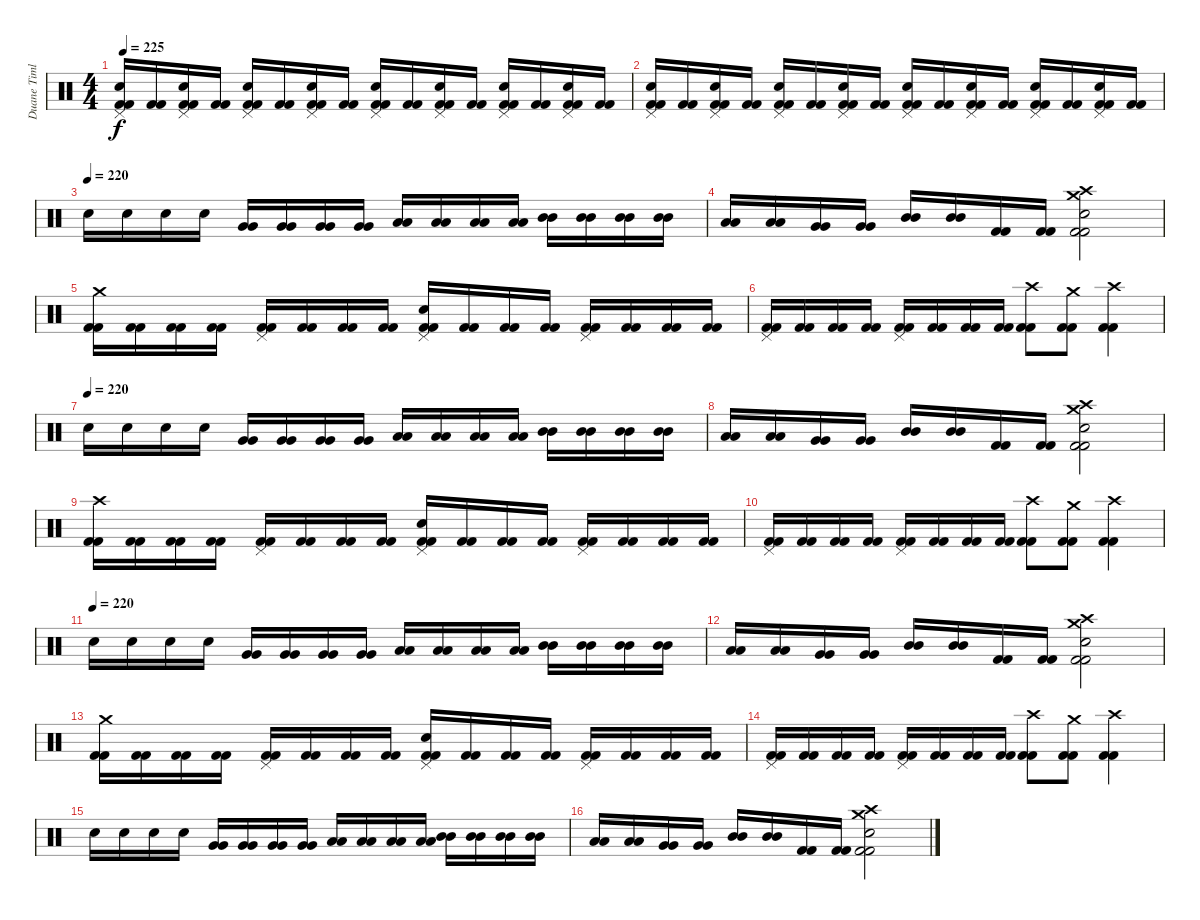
\track ("Duane Timlin" "Duane Timl") {instrument percussion}
\staff {score}
\articulation defaults
\ts (4 4)
\tempo 225
\clef neutral
\ks c
("Pedal Hi-Hat (hit)" "Electric Snare (hit)" "Kick (hit) 2" "Kick (hit) 2").16{dy f} ("Kick (hit) 2" "Kick (hit) 2").16 ("Pedal Hi-Hat (hit)" "Electric Snare (hit)" "Kick (hit) 2" "Kick (hit) 2").16 ("Kick (hit) 2" "Kick (hit) 2").16 ("Pedal Hi-Hat (hit)" "Electric Snare (hit)" "Kick (hit) 2" "Kick (hit) 2").16 ("Kick (hit) 2" "Kick (hit) 2").16 ("Pedal Hi-Hat (hit)" "Electric Snare (hit)" "Kick (hit) 2" "Kick (hit) 2").16 ("Kick (hit) 2" "Kick (hit) 2").16 ("Pedal Hi-Hat (hit)" "Electric Snare (hit)" "Kick (hit) 2" "Kick (hit) 2").16 ("Kick (hit) 2" "Kick (hit) 2").16 ("Pedal Hi-Hat (hit)" "Electric Snare (hit)" "Kick (hit) 2" "Kick (hit) 2").16 ("Kick (hit) 2" "Kick (hit) 2").16 ("Pedal Hi-Hat (hit)" "Electric Snare (hit)" "Kick (hit) 2" "Kick (hit) 2").16 ("Kick (hit) 2" "Kick (hit) 2").16 ("Pedal Hi-Hat (hit)" "Electric Snare (hit)" "Kick (hit) 2" "Kick (hit) 2").16 ("Kick (hit) 2" "Kick (hit) 2").16 |
("Pedal Hi-Hat (hit)" "Electric Snare (hit)" "Kick (hit) 2" "Kick (hit) 2").16 ("Kick (hit) 2" "Kick (hit) 2").16 ("Pedal Hi-Hat (hit)" "Electric Snare (hit)" "Kick (hit) 2" "Kick (hit) 2").16 ("Kick (hit) 2" "Kick (hit) 2").16 ("Pedal Hi-Hat (hit)" "Electric Snare (hit)" "Kick (hit) 2" "Kick (hit) 2").16 ("Kick (hit) 2" "Kick (hit) 2").16 ("Pedal Hi-Hat (hit)" "Electric Snare (hit)" "Kick (hit) 2" "Kick (hit) 2").16 ("Kick (hit) 2" "Kick (hit) 2").16 ("Pedal Hi-Hat (hit)" "Electric Snare (hit)" "Kick (hit) 2" "Kick (hit) 2").16 ("Kick (hit) 2" "Kick (hit) 2").16 ("Pedal Hi-Hat (hit)" "Electric Snare (hit)" "Kick (hit) 2" "Kick (hit) 2").16 ("Kick (hit) 2" "Kick (hit) 2").16 ("Pedal Hi-Hat (hit)" "Electric Snare (hit)" "Kick (hit) 2" "Kick (hit) 2").16 ("Kick (hit) 2" "Kick (hit) 2").16 ("Pedal Hi-Hat (hit)" "Electric Snare (hit)" "Kick (hit) 2" "Kick (hit) 2").16 ("Kick (hit) 2" "Kick (hit) 2").16 |
\tempo (220)
"Electric Snare (hit)".16 "Electric Snare (hit)".16 "Electric Snare (hit)".16 "Electric Snare (hit)".16 ("Very Low Tom (hit)" "Very Low Tom (hit)").16 ("Very Low Tom (hit)" "Very Low Tom (hit)").16 ("Very Low Tom (hit)" "Very Low Tom (hit)").16 ("Very Low Tom (hit)" "Very Low Tom (hit)").16 ("Low Tom (hit)" "Low Tom (hit)").16 ("Low Tom (hit)" "Low Tom (hit)").16 ("Low Tom (hit)" "Low Tom (hit)").16 ("Low Tom (hit)" "Low Tom (hit)").16 ("Mid Tom (hit)" "Mid Tom (hit)").16 ("Mid Tom (hit)" "Mid Tom (hit)").16 ("Mid Tom (hit)" "Mid Tom (hit)").16 ("Mid Tom (hit)" "Mid Tom (hit)").16 |
("Low Tom (hit)" "Low Tom (hit)").16 ("Low Tom (hit)" "Low Tom (hit)").16 ("Very Low Tom (hit)" "Very Low Tom (hit)").16 ("Very Low Tom (hit)" "Very Low Tom (hit)").16 ("Mid Tom (hit)" "Mid Tom (hit)").16 ("Mid Tom (hit)" "Mid Tom (hit)").16 ("Kick (hit) 2" "Kick (hit) 2").16 ("Kick (hit) 2" "Kick (hit) 2").16 ("Crash medium (hit)" "Crash high (hit)" "Electric Snare (hit)" "Kick (hit) 2" "Kick (hit) 2").2 |
("Crash medium (hit)" "Kick (hit) 2" "Kick (hit) 2").16 ("Kick (hit) 2" "Kick (hit) 2").16 ("Kick (hit) 2" "Kick (hit) 2").16 ("Kick (hit) 2" "Kick (hit) 2").16 ("Pedal Hi-Hat (hit)" "Kick (hit) 2" "Kick (hit) 2").16 ("Kick (hit) 2" "Kick (hit) 2").16 ("Kick (hit) 2" "Kick (hit) 2").16 ("Kick (hit) 2" "Kick (hit) 2").16 ("Pedal Hi-Hat (hit)" "Electric Snare (hit)" "Kick (hit) 2" "Kick (hit) 2").16 ("Kick (hit) 2" "Kick (hit) 2").16 ("Kick (hit) 2" "Kick (hit) 2").16 ("Kick (hit) 2" "Kick (hit) 2").16 ("Pedal Hi-Hat (hit)" "Kick (hit) 2" "Kick (hit) 2").16 ("Kick (hit) 2" "Kick (hit) 2").16 ("Kick (hit) 2" "Kick (hit) 2").16 ("Kick (hit) 2" "Kick (hit) 2").16 |
("Pedal Hi-Hat (hit)" "Kick (hit) 2" "Kick (hit) 2").16 ("Kick (hit) 2" "Kick (hit) 2").16 ("Kick (hit) 2" "Kick (hit) 2").16 ("Kick (hit) 2" "Kick (hit) 2").16 ("Pedal Hi-Hat (hit)" "Kick (hit) 2" "Kick (hit) 2").16 ("Kick (hit) 2" "Kick (hit) 2").16 ("Kick (hit) 2" "Kick (hit) 2").16 ("Kick (hit) 2" "Kick (hit) 2").16 ("Crash high (hit)" "Kick (hit) 2" "Kick (hit) 2").8 ("Crash medium (hit)" "Kick (hit) 2" "Kick (hit) 2").8 ("Crash high (hit)" "Kick (hit) 2" "Kick (hit) 2").4 |
\tempo (220)
"Electric Snare (hit)".16 "Electric Snare (hit)".16 "Electric Snare (hit)".16 "Electric Snare (hit)".16 ("Very Low Tom (hit)" "Very Low Tom (hit)").16 ("Very Low Tom (hit)" "Very Low Tom (hit)").16 ("Very Low Tom (hit)" "Very Low Tom (hit)").16 ("Very Low Tom (hit)" "Very Low Tom (hit)").16 ("Low Tom (hit)" "Low Tom (hit)").16 ("Low Tom (hit)" "Low Tom (hit)").16 ("Low Tom (hit)" "Low Tom (hit)").16 ("Low Tom (hit)" "Low Tom (hit)").16 ("Mid Tom (hit)" "Mid Tom (hit)").16 ("Mid Tom (hit)" "Mid Tom (hit)").16 ("Mid Tom (hit)" "Mid Tom (hit)").16 ("Mid Tom (hit)" "Mid Tom (hit)").16 |
("Low Tom (hit)" "Low Tom (hit)").16 ("Low Tom (hit)" "Low Tom (hit)").16 ("Very Low Tom (hit)" "Very Low Tom (hit)").16 ("Very Low Tom (hit)" "Very Low Tom (hit)").16 ("Mid Tom (hit)" "Mid Tom (hit)").16 ("Mid Tom (hit)" "Mid Tom (hit)").16 ("Kick (hit) 2" "Kick (hit) 2").16 ("Kick (hit) 2" "Kick (hit) 2").16 ("Crash medium (hit)" "Crash high (hit)" "Electric Snare (hit)" "Kick (hit) 2" "Kick (hit) 2").2 |
("Crash high (hit)" "Kick (hit) 2" "Kick (hit) 2").16 ("Kick (hit) 2" "Kick (hit) 2").16 ("Kick (hit) 2" "Kick (hit) 2").16 ("Kick (hit) 2" "Kick (hit) 2").16 ("Pedal Hi-Hat (hit)" "Kick (hit) 2" "Kick (hit) 2").16 ("Kick (hit) 2" "Kick (hit) 2").16 ("Kick (hit) 2" "Kick (hit) 2").16 ("Kick (hit) 2" "Kick (hit) 2").16 ("Pedal Hi-Hat (hit)" "Electric Snare (hit)" "Kick (hit) 2" "Kick (hit) 2").16 ("Kick (hit) 2" "Kick (hit) 2").16 ("Kick (hit) 2" "Kick (hit) 2").16 ("Kick (hit) 2" "Kick (hit) 2").16 ("Pedal Hi-Hat (hit)" "Kick (hit) 2" "Kick (hit) 2").16 ("Kick (hit) 2" "Kick (hit) 2").16 ("Kick (hit) 2" "Kick (hit) 2").16 ("Kick (hit) 2" "Kick (hit) 2").16 |
("Pedal Hi-Hat (hit)" "Kick (hit) 2" "Kick (hit) 2").16 ("Kick (hit) 2" "Kick (hit) 2").16 ("Kick (hit) 2" "Kick (hit) 2").16 ("Kick (hit) 2" "Kick (hit) 2").16 ("Pedal Hi-Hat (hit)" "Kick (hit) 2" "Kick (hit) 2").16 ("Kick (hit) 2" "Kick (hit) 2").16 ("Kick (hit) 2" "Kick (hit) 2").16 ("Kick (hit) 2" "Kick (hit) 2").16 ("Crash high (hit)" "Kick (hit) 2" "Kick (hit) 2").8 ("Crash medium (hit)" "Kick (hit) 2" "Kick (hit) 2").8 ("Crash high (hit)" "Kick (hit) 2" "Kick (hit) 2").4 |
\tempo (220)
"Electric Snare (hit)".16 "Electric Snare (hit)".16 "Electric Snare (hit)".16 "Electric Snare (hit)".16 ("Very Low Tom (hit)" "Very Low Tom (hit)").16 ("Very Low Tom (hit)" "Very Low Tom (hit)").16 ("Very Low Tom (hit)" "Very Low Tom (hit)").16 ("Very Low Tom (hit)" "Very Low Tom (hit)").16 ("Low Tom (hit)" "Low Tom (hit)").16 ("Low Tom (hit)" "Low Tom (hit)").16 ("Low Tom (hit)" "Low Tom (hit)").16 ("Low Tom (hit)" "Low Tom (hit)").16 ("Mid Tom (hit)" "Mid Tom (hit)").16 ("Mid Tom (hit)" "Mid Tom (hit)").16 ("Mid Tom (hit)" "Mid Tom (hit)").16 ("Mid Tom (hit)" "Mid Tom (hit)").16 |
("Low Tom (hit)" "Low Tom (hit)").16 ("Low Tom (hit)" "Low Tom (hit)").16 ("Very Low Tom (hit)" "Very Low Tom (hit)").16 ("Very Low Tom (hit)" "Very Low Tom (hit)").16 ("Mid Tom (hit)" "Mid Tom (hit)").16 ("Mid Tom (hit)" "Mid Tom (hit)").16 ("Kick (hit) 2" "Kick (hit) 2").16 ("Kick (hit) 2" "Kick (hit) 2").16 ("Crash medium (hit)" "Crash high (hit)" "Electric Snare (hit)" "Kick (hit) 2" "Kick (hit) 2").2 |
("Crash medium (hit)" "Kick (hit) 2" "Kick (hit) 2").16 ("Kick (hit) 2" "Kick (hit) 2").16 ("Kick (hit) 2" "Kick (hit) 2").16 ("Kick (hit) 2" "Kick (hit) 2").16 ("Pedal Hi-Hat (hit)" "Kick (hit) 2" "Kick (hit) 2").16 ("Kick (hit) 2" "Kick (hit) 2").16 ("Kick (hit) 2" "Kick (hit) 2").16 ("Kick (hit) 2" "Kick (hit) 2").16 ("Pedal Hi-Hat (hit)" "Electric Snare (hit)" "Kick (hit) 2" "Kick (hit) 2").16 ("Kick (hit) 2" "Kick (hit) 2").16 ("Kick (hit) 2" "Kick (hit) 2").16 ("Kick (hit) 2" "Kick (hit) 2").16 ("Pedal Hi-Hat (hit)" "Kick (hit) 2" "Kick (hit) 2").16 ("Kick (hit) 2" "Kick (hit) 2").16 ("Kick (hit) 2" "Kick (hit) 2").16 ("Kick (hit) 2" "Kick (hit) 2").16 |
("Pedal Hi-Hat (hit)" "Kick (hit) 2" "Kick (hit) 2").16 ("Kick (hit) 2" "Kick (hit) 2").16 ("Kick (hit) 2" "Kick (hit) 2").16 ("Kick (hit) 2" "Kick (hit) 2").16 ("Pedal Hi-Hat (hit)" "Kick (hit) 2" "Kick (hit) 2").16 ("Kick (hit) 2" "Kick (hit) 2").16 ("Kick (hit) 2" "Kick (hit) 2").16 ("Kick (hit) 2" "Kick (hit) 2").16 ("Crash high (hit)" "Kick (hit) 2" "Kick (hit) 2").8 ("Crash medium (hit)" "Kick (hit) 2" "Kick (hit) 2").8 ("Crash high (hit)" "Kick (hit) 2" "Kick (hit) 2").4 |
"Electric Snare (hit)".16 "Electric Snare (hit)".16 "Electric Snare (hit)".16 "Electric Snare (hit)".16 ("Very Low Tom (hit)" "Very Low Tom (hit)").16 ("Very Low Tom (hit)" "Very Low Tom (hit)").16 ("Very Low Tom (hit)" "Very Low Tom (hit)").16 ("Very Low Tom (hit)" "Very Low Tom (hit)").16 ("Low Tom (hit)" "Low Tom (hit)").16 ("Low Tom (hit)" "Low Tom (hit)").16 ("Low Tom (hit)" "Low Tom (hit)").16 ("Low Tom (hit)" "Low Tom (hit)").16 ("Mid Tom (hit)" "Mid Tom (hit)").16 ("Mid Tom (hit)" "Mid Tom (hit)").16 ("Mid Tom (hit)" "Mid Tom (hit)").16 ("Mid Tom (hit)" "Mid Tom (hit)").16 |
("Low Tom (hit)" "Low Tom (hit)").16 ("Low Tom (hit)" "Low Tom (hit)").16 ("Very Low Tom (hit)" "Very Low Tom (hit)").16 ("Very Low Tom (hit)" "Very Low Tom (hit)").16 ("Mid Tom (hit)" "Mid Tom (hit)").16 ("Mid Tom (hit)" "Mid Tom (hit)").16 ("Kick (hit) 2" "Kick (hit) 2").16 ("Kick (hit) 2" "Kick (hit) 2").16 ("Crash medium (hit)" "Crash high (hit)" "Electric Snare (hit)" "Kick (hit) 2" "Kick (hit) 2").2
